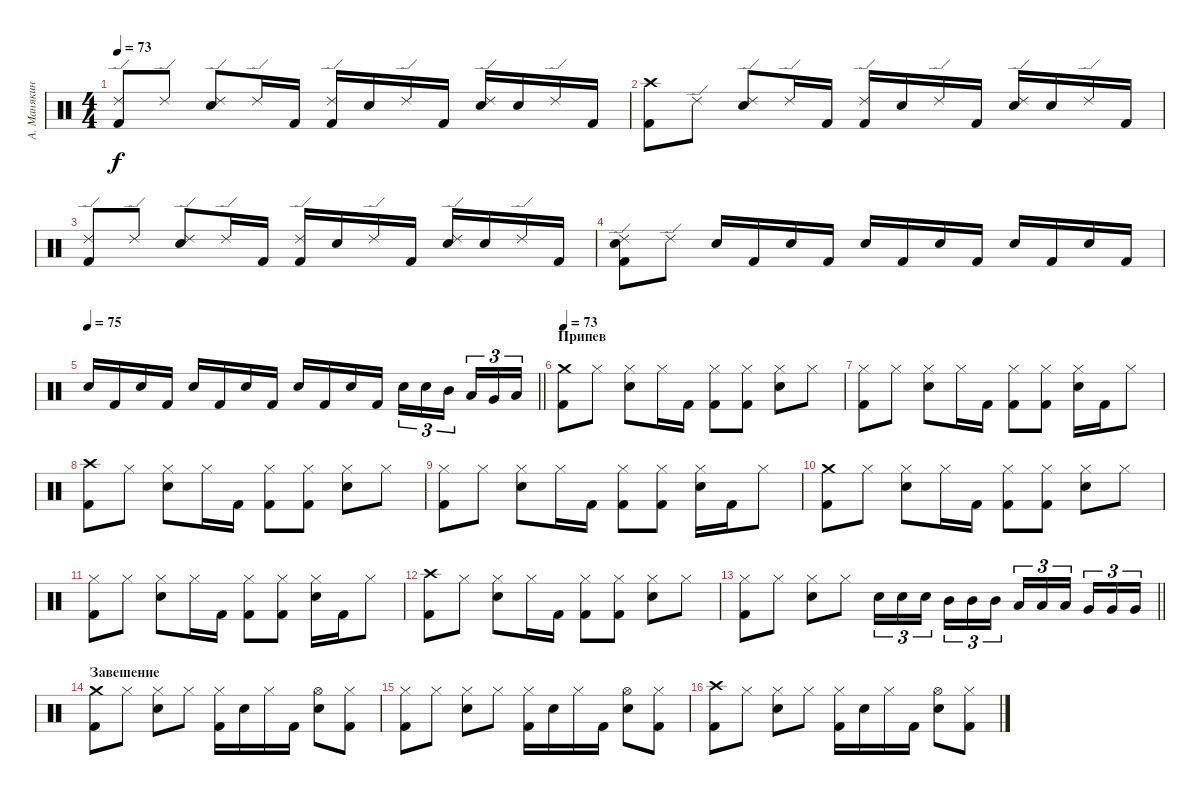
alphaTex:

\track ("А. Манякин" "А. Манякин") {instrument percussion}
\staff {score}
\articulation defaults
\ts (4 4)
\tempo 73
\clef neutral
\ks c
("Ride (edge) 2" "Kick (hit) 2").8{dy f} "Ride (edge) 2".8 ("Snare (hit) 2" "Ride (edge) 2").8 "Ride (edge) 2".16 "Kick (hit) 2".16 ("Kick (hit) 2" "Ride (edge) 2").16 "Snare (hit) 2".16 "Ride (edge) 2".16 "Kick (hit) 2".16 ("Snare (hit) 2" "Ride (edge) 2").16 "Snare (hit) 2".16 "Ride (edge) 2".16 "Kick (hit) 2".16 |
("Kick (hit) 2" "Crash high (hit)").8 "Ride (edge) 2".8 ("Snare (hit) 2" "Ride (edge) 2").8 "Ride (edge) 2".16 "Kick (hit) 2".16 ("Kick (hit) 2" "Ride (edge) 2").16 "Snare (hit) 2".16 "Ride (edge) 2".16 "Kick (hit) 2".16 ("Snare (hit) 2" "Ride (edge) 2").16 "Snare (hit) 2".16 "Ride (edge) 2".16 "Kick (hit) 2".16 |
("Ride (edge) 2" "Kick (hit) 2").8 "Ride (edge) 2".8 ("Snare (hit) 2" "Ride (edge) 2").8 "Ride (edge) 2".16 "Kick (hit) 2".16 ("Kick (hit) 2" "Ride (edge) 2").16 "Snare (hit) 2".16 "Ride (edge) 2".16 "Kick (hit) 2".16 ("Snare (hit) 2" "Ride (edge) 2").16 "Snare (hit) 2".16 "Ride (edge) 2".16 "Kick (hit) 2".16 |
("Kick (hit) 2" "Ride (edge) 2" "Snare (hit) 2").8 "Ride (edge) 2".8 "Snare (hit) 2".16 "Kick (hit) 2".16 "Snare (hit) 2".16 "Kick (hit) 2".16 "Snare (hit) 2".16 "Kick (hit) 2".16 "Snare (hit) 2".16 "Kick (hit) 2".16 "Snare (hit) 2".16 "Kick (hit) 2".16 "Snare (hit) 2".16 "Kick (hit) 2".16 |
\tempo 75
\barLineRight lightlight "Snare (hit) 2".16 "Kick (hit) 2".16 "Snare (hit) 2".16 "Kick (hit) 2".16 "Snare (hit) 2".16 "Kick (hit) 2".16 "Snare (hit) 2".16 "Kick (hit) 2".16 "Snare (hit) 2".16 "Kick (hit) 2".16 "Snare (hit) 2".16 "Kick (hit) 2".16 "Snare (hit) 2".16{tu (3 2)} "Snare (hit) 2".16{tu (3 2)} "Mid Tom (hit)".16{tu (3 2) beam splitsecondary} "Low Tom (hit)".16{tu (3 2)} "Very Low Tom (hit)".16{tu (3 2)} "Low Floor Tom (hit)".16{tu (3 2)}
|
\section ("" "Припев")
\tempo 73
("Kick (hit) 2" "Crash medium (hit)").8 "Hi-Hat (closed)".8 ("Snare (hit) 2" "Hi-Hat (closed)").8 "Hi-Hat (closed)".16 "Kick (hit) 2".16 ("Kick (hit) 2" "Hi-Hat (closed)").8 ("Kick (hit) 2" "Hi-Hat (closed)").8 ("Snare (hit) 2" "Hi-Hat (closed)").8 "Hi-Hat (closed)".8 |
("Hi-Hat (closed)" "Kick (hit) 2").8 "Hi-Hat (closed)".8 ("Hi-Hat (closed)" "Snare (hit) 2").8 "Hi-Hat (closed)".16 "Kick (hit) 2".16 ("Hi-Hat (closed)" "Kick (hit) 2").8 ("Hi-Hat (closed)" "Kick (hit) 2").8 ("Hi-Hat (closed)" "Snare (hit) 2").16 "Kick (hit) 2".16 "Hi-Hat (closed)".8 |
("Kick (hit) 2" "Crash high (hit)").8 "Hi-Hat (closed)".8 ("Snare (hit) 2" "Hi-Hat (closed)").8 "Hi-Hat (closed)".16 "Kick (hit) 2".16 ("Kick (hit) 2" "Hi-Hat (closed)").8 ("Kick (hit) 2" "Hi-Hat (closed)").8 ("Snare (hit) 2" "Hi-Hat (closed)").8 "Hi-Hat (closed)".8 |
("Hi-Hat (closed)" "Kick (hit) 2").8 "Hi-Hat (closed)".8 ("Hi-Hat (closed)" "Snare (hit) 2").8 "Hi-Hat (closed)".16 "Kick (hit) 2".16 ("Hi-Hat (closed)" "Kick (hit) 2").8 ("Hi-Hat (closed)" "Kick (hit) 2").8 ("Hi-Hat (closed)" "Snare (hit) 2").16 "Kick (hit) 2".16 "Hi-Hat (closed)".8 |
("Kick (hit) 2" "Crash medium (hit)").8 "Hi-Hat (closed)".8 ("Snare (hit) 2" "Hi-Hat (closed)").8 "Hi-Hat (closed)".16 "Kick (hit) 2".16 ("Kick (hit) 2" "Hi-Hat (closed)").8 ("Kick (hit) 2" "Hi-Hat (closed)").8 ("Snare (hit) 2" "Hi-Hat (closed)").8 "Hi-Hat (closed)".8 |
("Hi-Hat (closed)" "Kick (hit) 2").8 "Hi-Hat (closed)".8 ("Hi-Hat (closed)" "Snare (hit) 2").8 "Hi-Hat (closed)".16 "Kick (hit) 2".16 ("Hi-Hat (closed)" "Kick (hit) 2").8 ("Hi-Hat (closed)" "Kick (hit) 2").8 ("Hi-Hat (closed)" "Snare (hit) 2").16 "Kick (hit) 2".16 "Hi-Hat (closed)".8 |
("Kick (hit) 2" "Crash high (hit)").8 "Hi-Hat (closed)".8 ("Snare (hit) 2" "Hi-Hat (closed)").8 "Hi-Hat (closed)".16 "Kick (hit) 2".16 ("Kick (hit) 2" "Hi-Hat (closed)").8 ("Kick (hit) 2" "Hi-Hat (closed)").8 ("Snare (hit) 2" "Hi-Hat (closed)").8 "Hi-Hat (closed)".8 |
\barLineRight lightlight
("Kick (hit) 2" "Hi-Hat (closed)").8 "Hi-Hat (closed)".8 ("Snare (hit) 2" "Hi-Hat (closed)").8 "Hi-Hat (closed)".8 "Snare (hit) 2".16{tu (3 2)} "Snare (hit) 2".16{tu (3 2)} "Snare (hit) 2".16{tu (3 2) beam splitsecondary} "Mid Tom (hit)".16{tu (3 2)} "Mid Tom (hit)".16{tu (3 2)} "Mid Tom (hit)".16{tu (3 2)} "Low Tom (hit)".16{tu (3 2)} "Low Tom (hit)".16{tu (3 2)} "Low Tom (hit)".16{tu (3 2) beam splitsecondary} "Very Low Tom (hit)".16{tu (3 2)} "Very Low Tom (hit)".16{tu (3 2)} "Very Low Tom (hit)".16{tu (3 2)} |
\section ("" "Завешение")
("Kick (hit) 2" "Crash medium (hit)").8 "Hi-Hat (closed)".8 ("Snare (hit) 2" "Hi-Hat (closed)").8 "Hi-Hat (closed)".8 ("Kick (hit) 2" "Hi-Hat (closed)").16 "Snare (hit) 2".16 "Hi-Hat (closed)".16 "Kick (hit) 2".16 ("Snare (hit) 2" "Hi-Hat (open)").8 ("Kick (hit) 2" "Hi-Hat (closed)").8 |
("Kick (hit) 2" "Hi-Hat (closed)").8 "Hi-Hat (closed)".8 ("Snare (hit) 2" "Hi-Hat (closed)").8 "Hi-Hat (closed)".8 ("Kick (hit) 2" "Hi-Hat (closed)").16 "Snare (hit) 2".16 "Hi-Hat (closed)".16 "Kick (hit) 2".16 ("Snare (hit) 2" "Hi-Hat (open)").8 ("Kick (hit) 2" "Hi-Hat (closed)").8 |
("Kick (hit) 2" "Crash high (hit)").8 "Hi-Hat (closed)".8 ("Snare (hit) 2" "Hi-Hat (closed)").8 "Hi-Hat (closed)".8 ("Kick (hit) 2" "Hi-Hat (closed)").16 "Snare (hit) 2".16 "Hi-Hat (closed)".16 "Kick (hit) 2".16 ("Snare (hit) 2" "Hi-Hat (open)").8 ("Kick (hit) 2" "Hi-Hat (closed)").8
